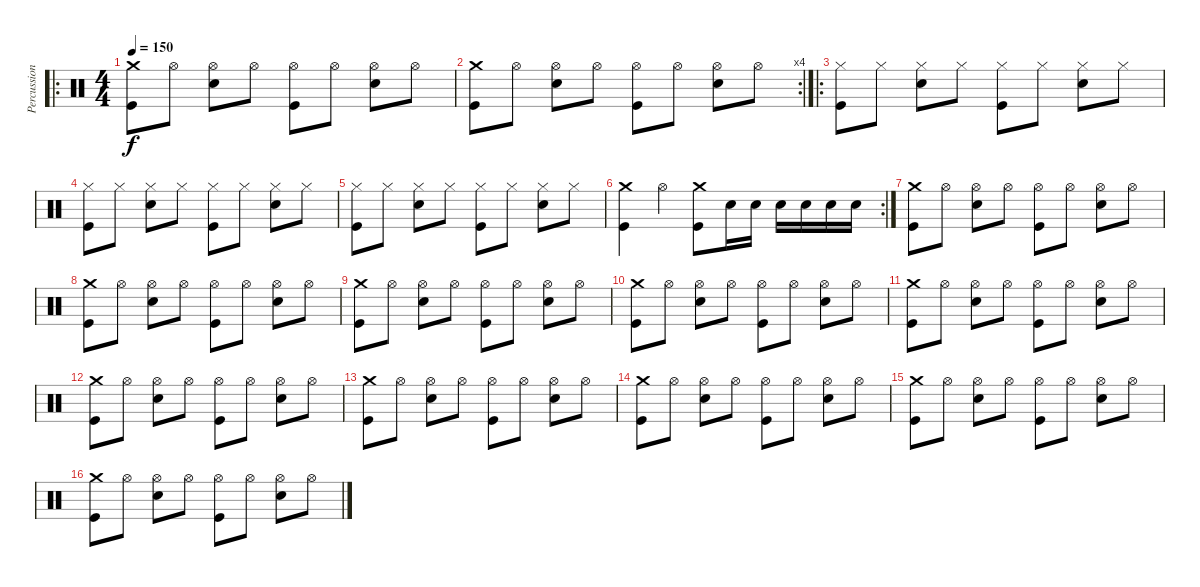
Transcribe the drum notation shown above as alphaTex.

\track ("Percussion" "Percussion") {instrument percussion}
\staff {score}
\articulation defaults
\ro
\ts (4 4)
\tempo 150
\clef neutral
\ks c
("Crash medium (hit)" "Kick (hit)").8{dy f} "Hi-Hat (open)".8 ("Hi-Hat (open)" "Snare (hit) 2").8 "Hi-Hat (open)".8 ("Hi-Hat (open)" "Kick (hit)").8 "Hi-Hat (open)".8 ("Hi-Hat (open)" "Snare (hit) 2").8 "Hi-Hat (open)".8 |
\rc 4
("Crash medium (hit)" "Kick (hit)").8 "Hi-Hat (open)".8 ("Hi-Hat (open)" "Snare (hit) 2").8 "Hi-Hat (open)".8 ("Hi-Hat (open)" "Kick (hit)").8 "Hi-Hat (open)".8 ("Hi-Hat (open)" "Snare (hit) 2").8 "Hi-Hat (open)".8 |
\ro
("Hi-Hat (closed)" "Kick (hit)").8 "Hi-Hat (closed)".8 ("Hi-Hat (closed)" "Snare (hit) 2").8 "Hi-Hat (closed)".8 ("Hi-Hat (closed)" "Kick (hit)").8 "Hi-Hat (closed)".8 ("Hi-Hat (closed)" "Snare (hit) 2").8 "Hi-Hat (closed)".8 |
("Hi-Hat (closed)" "Kick (hit)").8 "Hi-Hat (closed)".8 ("Hi-Hat (closed)" "Snare (hit) 2").8 "Hi-Hat (closed)".8 ("Hi-Hat (closed)" "Kick (hit)").8 "Hi-Hat (closed)".8 ("Hi-Hat (closed)" "Snare (hit) 2").8 "Hi-Hat (closed)".8 |
("Hi-Hat (closed)" "Kick (hit)").8 "Hi-Hat (closed)".8 ("Hi-Hat (closed)" "Snare (hit) 2").8 "Hi-Hat (closed)".8 ("Hi-Hat (closed)" "Kick (hit)").8 "Hi-Hat (closed)".8 ("Hi-Hat (closed)" "Snare (hit) 2").8 "Hi-Hat (closed)".8 |
\rc 2
("Crash medium (hit)" "Kick (hit)").4 "Hi-Hat (open)".4 ("Crash medium (hit)" "Kick (hit)").8 "Snare (hit) 2".16 "Snare (hit) 2".16 "Snare (hit) 2".16 "Snare (hit) 2".16 "Snare (hit) 2".16 "Snare (hit) 2".16 |
("Crash medium (hit)" "Kick (hit)").8 "Hi-Hat (open)".8 ("Hi-Hat (open)" "Snare (hit) 2").8 "Hi-Hat (open)".8 ("Hi-Hat (open)" "Kick (hit)").8 "Hi-Hat (open)".8 ("Hi-Hat (open)" "Snare (hit) 2").8 "Hi-Hat (open)".8 |
("Crash medium (hit)" "Kick (hit)").8 "Hi-Hat (open)".8 ("Hi-Hat (open)" "Snare (hit) 2").8 "Hi-Hat (open)".8 ("Hi-Hat (open)" "Kick (hit)").8 "Hi-Hat (open)".8 ("Hi-Hat (open)" "Snare (hit) 2").8 "Hi-Hat (open)".8 |
("Crash medium (hit)" "Kick (hit)").8 "Hi-Hat (open)".8 ("Hi-Hat (open)" "Snare (hit) 2").8 "Hi-Hat (open)".8 ("Hi-Hat (open)" "Kick (hit)").8 "Hi-Hat (open)".8 ("Hi-Hat (open)" "Snare (hit) 2").8 "Hi-Hat (open)".8 |
("Crash medium (hit)" "Kick (hit)").8 "Hi-Hat (open)".8 ("Hi-Hat (open)" "Snare (hit) 2").8 "Hi-Hat (open)".8 ("Hi-Hat (open)" "Kick (hit)").8 "Hi-Hat (open)".8 ("Hi-Hat (open)" "Snare (hit) 2").8 "Hi-Hat (open)".8 |
("Crash medium (hit)" "Kick (hit)").8 "Hi-Hat (open)".8 ("Hi-Hat (open)" "Snare (hit) 2").8 "Hi-Hat (open)".8 ("Hi-Hat (open)" "Kick (hit)").8 "Hi-Hat (open)".8 ("Hi-Hat (open)" "Snare (hit) 2").8 "Hi-Hat (open)".8 |
("Crash medium (hit)" "Kick (hit)").8 "Hi-Hat (open)".8 ("Hi-Hat (open)" "Snare (hit) 2").8 "Hi-Hat (open)".8 ("Hi-Hat (open)" "Kick (hit)").8 "Hi-Hat (open)".8 ("Hi-Hat (open)" "Snare (hit) 2").8 "Hi-Hat (open)".8 |
("Crash medium (hit)" "Kick (hit)").8 "Hi-Hat (open)".8 ("Hi-Hat (open)" "Snare (hit) 2").8 "Hi-Hat (open)".8 ("Hi-Hat (open)" "Kick (hit)").8 "Hi-Hat (open)".8 ("Hi-Hat (open)" "Snare (hit) 2").8 "Hi-Hat (open)".8 |
("Crash medium (hit)" "Kick (hit)").8 "Hi-Hat (open)".8 ("Hi-Hat (open)" "Snare (hit) 2").8 "Hi-Hat (open)".8 ("Hi-Hat (open)" "Kick (hit)").8 "Hi-Hat (open)".8 ("Hi-Hat (open)" "Snare (hit) 2").8 "Hi-Hat (open)".8 |
("Crash medium (hit)" "Kick (hit)").8 "Hi-Hat (open)".8 ("Hi-Hat (open)" "Snare (hit) 2").8 "Hi-Hat (open)".8 ("Hi-Hat (open)" "Kick (hit)").8 "Hi-Hat (open)".8 ("Hi-Hat (open)" "Snare (hit) 2").8 "Hi-Hat (open)".8 |
("Crash medium (hit)" "Kick (hit)").8 "Hi-Hat (open)".8 ("Hi-Hat (open)" "Snare (hit) 2").8 "Hi-Hat (open)".8 ("Hi-Hat (open)" "Kick (hit)").8 "Hi-Hat (open)".8 ("Hi-Hat (open)" "Snare (hit) 2").8 "Hi-Hat (open)".8
